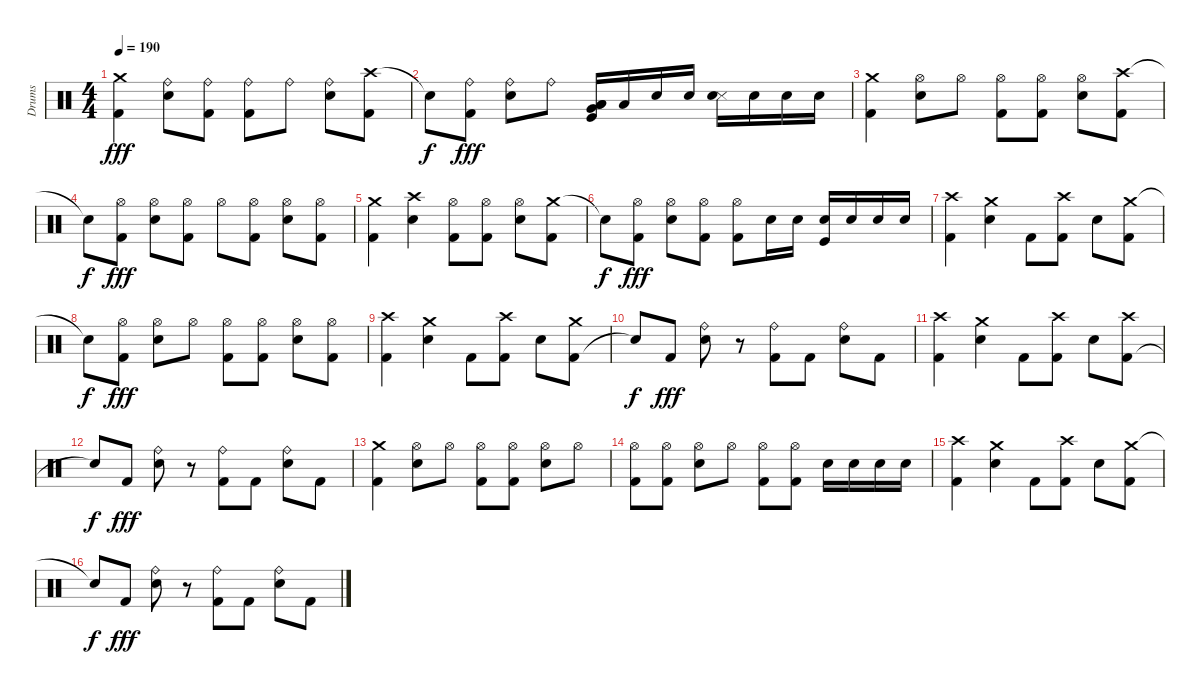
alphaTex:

\track ("Drums" "Drums") {instrument percussion}
\staff {score}
\articulation defaults
\ts (4 4)
\tempo 190
\clef neutral
\ks c
("Kick (hit) 2" "Crash medium (hit)").4{dy fff} ("Ride (bell)" "Electric Snare (hit)").8 ("Kick (hit) 2" "Ride (bell)").8 ("Kick (hit) 2" "Ride (bell)").8 "Ride (bell)".8 ("Electric Snare (hit)" "Ride (bell)").8 ("Crash high (hit)" "Kick (hit) 2").8 |
"Snare (hit)"{t}.8{dy f} ("Kick (hit) 2" "Ride (bell)").8{dy fff} ("Ride (bell)" "Electric Snare (hit)").8 "Ride (bell)".8 ("Very Low Tom (hit)" "Kick (hit)" "Low Floor Tom (hit)" "Low Tom (hit)").16 "Low Tom (hit)".16 "Electric Snare (hit)".16 "Electric Snare (hit)".16 ("Metronome (hit)" "Electric Snare (hit)").16 "Electric Snare (hit)".16 "Electric Snare (hit)".16 "Electric Snare (hit)".16 |
("Crash medium (hit)" "Kick (hit) 2").4 ("Hi-Hat (open)" "Electric Snare (hit)").8 "Hi-Hat (open)".8 ("Hi-Hat (open)" "Kick (hit) 2").8 ("Hi-Hat (open)" "Kick (hit) 2").8 ("Electric Snare (hit)" "Hi-Hat (open)").8 ("Crash high (hit)" "Kick (hit) 2").8 |
"Snare (hit)"{t}.8{dy f} ("Kick (hit) 2" "Hi-Hat (open)").8{dy fff} ("Hi-Hat (open)" "Electric Snare (hit)").8 ("Hi-Hat (open)" "Kick (hit) 2").8 "Hi-Hat (open)".8 ("Hi-Hat (open)" "Kick (hit) 2").8 ("Hi-Hat (open)" "Electric Snare (hit)").8 ("Hi-Hat (open)" "Kick (hit) 2").8 |
("Crash medium (hit)" "Kick (hit) 2").4 ("Crash high (hit)" "Electric Snare (hit)").4 ("Kick (hit) 2" "Hi-Hat (open)").8 ("Kick (hit) 2" "Hi-Hat (open)").8 ("Electric Snare (hit)" "Hi-Hat (open)").8 ("Crash medium (hit)" "Kick (hit) 2").8 |
"Snare (hit)"{t}.8{dy f} ("Hi-Hat (open)" "Kick (hit) 2").8{dy fff} ("Electric Snare (hit)" "Hi-Hat (open)").8 ("Kick (hit) 2" "Hi-Hat (open)").8 ("Hi-Hat (open)" "Kick (hit) 2").8 "Electric Snare (hit)".16 "Electric Snare (hit)".16 ("Kick (hit)" "Electric Snare (hit)").16 "Electric Snare (hit)".16 "Electric Snare (hit)".16 "Electric Snare (hit)".16 |
("Crash high (hit)" "Kick (hit) 2").4 ("Electric Snare (hit)" "Crash medium (hit)").4 "Kick (hit) 2".8 ("Kick (hit) 2" "Crash high (hit)").8 "Electric Snare (hit)".8 ("Crash medium (hit)" "Kick (hit) 2").8 |
"Snare (hit)"{t}.8{dy f} ("Kick (hit) 2" "Hi-Hat (open)").8{dy fff} ("Hi-Hat (open)" "Electric Snare (hit)").8 "Hi-Hat (open)".8 ("Kick (hit) 2" "Hi-Hat (open)").8 ("Hi-Hat (open)" "Kick (hit) 2").8 ("Electric Snare (hit)" "Hi-Hat (open)").8 ("Hi-Hat (open)" "Kick (hit) 2").8 |
("Kick (hit) 2" "Crash high (hit)").4 ("Crash medium (hit)" "Electric Snare (hit)").4 "Kick (hit) 2".8 ("Crash high (hit)" "Kick (hit) 2").8 "Electric Snare (hit)".8 ("Kick (hit) 2" "Crash medium (hit)").8 |
"Snare (hit)"{t}.8{dy f} "Kick (hit) 2".8{dy fff} ("Electric Snare (hit)" "Ride (bell)").8 r.8 ("Ride (bell)" "Kick (hit) 2").8 "Kick (hit) 2".8 ("Electric Snare (hit)" "Ride (bell)").8 "Kick (hit) 2".8 |
("Crash high (hit)" "Kick (hit) 2").4 ("Crash medium (hit)" "Electric Snare (hit)").4 "Kick (hit) 2".8 ("Crash high (hit)" "Kick (hit) 2").8 "Electric Snare (hit)".8 ("Kick (hit) 2" "Crash high (hit)").8 |
"Snare (hit)"{t}.8{dy f} "Kick (hit) 2".8{dy fff} ("Electric Snare (hit)" "Ride (bell)").8 r.8 ("Kick (hit) 2" "Ride (bell)").8 "Kick (hit) 2".8 ("Electric Snare (hit)" "Ride (bell)").8 "Kick (hit) 2".8 |
("Crash medium (hit)" "Kick (hit) 2").4 ("Electric Snare (hit)" "Hi-Hat (open)").8 "Hi-Hat (open)".8 ("Kick (hit) 2" "Hi-Hat (open)").8 ("Kick (hit) 2" "Hi-Hat (open)").8 ("Hi-Hat (open)" "Electric Snare (hit)").8 "Hi-Hat (open)".8 |
("Kick (hit) 2" "Hi-Hat (open)").8 ("Hi-Hat (open)" "Kick (hit) 2").8 ("Electric Snare (hit)" "Hi-Hat (open)").8 "Hi-Hat (open)".8 ("Kick (hit) 2" "Hi-Hat (open)").8 ("Kick (hit) 2" "Hi-Hat (open)").8 "Electric Snare (hit)".16 "Electric Snare (hit)".16 "Electric Snare (hit)".16 "Electric Snare (hit)".16 |
("Crash high (hit)" "Kick (hit) 2").4 ("Electric Snare (hit)" "Crash medium (hit)").4 "Kick (hit) 2".8 ("Kick (hit) 2" "Crash high (hit)").8 "Electric Snare (hit)".8 ("Crash medium (hit)" "Kick (hit) 2").8 |
"Snare (hit)"{t}.8{dy f} "Kick (hit) 2".8{dy fff} ("Ride (bell)" "Electric Snare (hit)").8 r.8 ("Ride (bell)" "Kick (hit) 2").8 "Kick (hit) 2".8 ("Ride (bell)" "Electric Snare (hit)").8 "Kick (hit) 2".8
